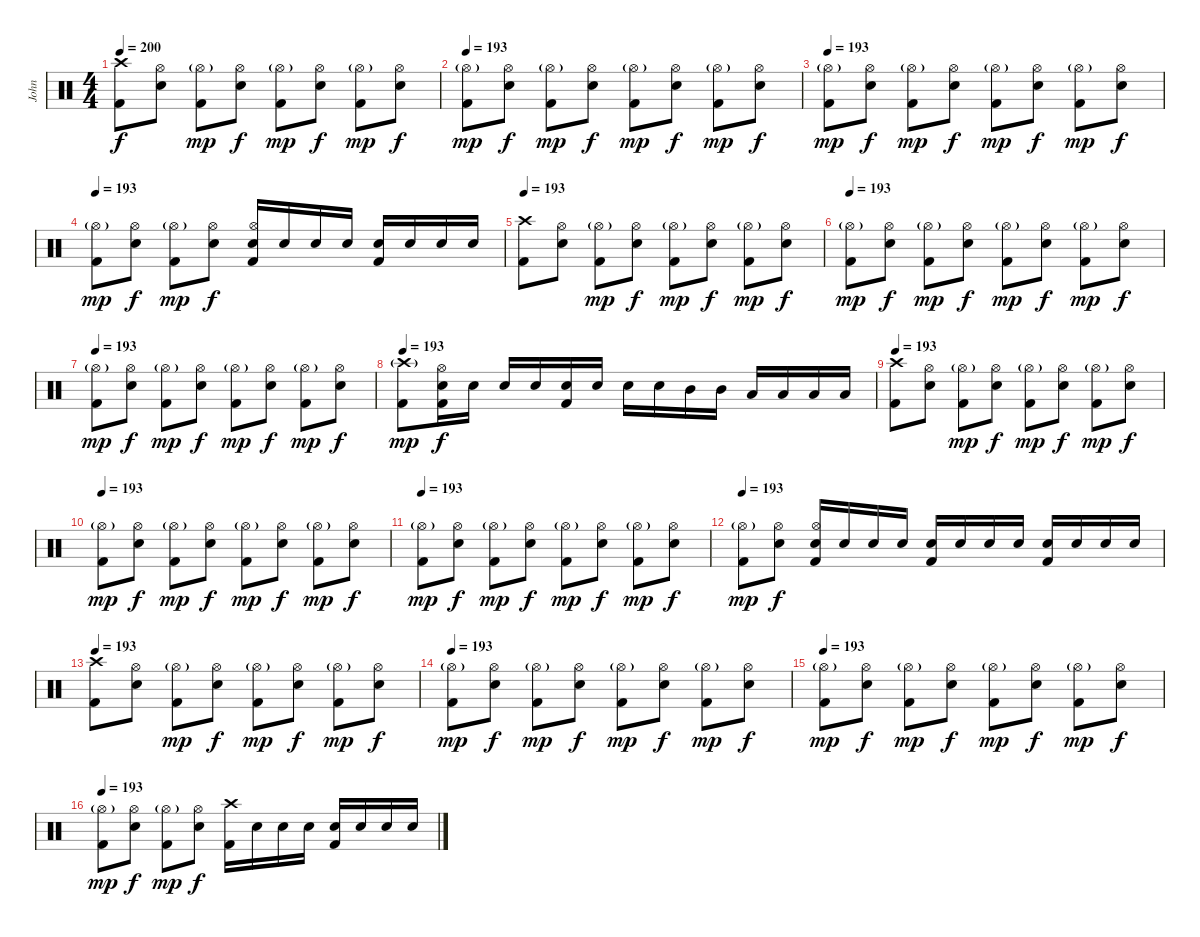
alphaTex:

\track ("John " "John ") {instrument percussion}
\staff {score}
\articulation defaults
\ts (4 4)
\tempo 200
\tempo 193
\tempo 200
\clef neutral
\ks c
("Crash high (hit)" "Kick (hit) 2").8{dy f} ("Hi-Hat (open)" "Snare (hit) 2").8 ("Hi-Hat (open)"{g} "Kick (hit) 2").8{dy mp} ("Hi-Hat (open)" "Snare (hit) 2").8{dy f} ("Hi-Hat (open)"{g} "Kick (hit) 2").8{dy mp} ("Hi-Hat (open)" "Snare (hit) 2").8{dy f} ("Hi-Hat (open)"{g} "Kick (hit) 2").8{dy mp} ("Hi-Hat (open)" "Snare (hit) 2").8{dy f} |
\tempo 193
("Hi-Hat (open)"{g} "Kick (hit) 2").8{dy mp} ("Hi-Hat (open)" "Snare (hit) 2").8{dy f} ("Hi-Hat (open)"{g} "Kick (hit) 2").8{dy mp} ("Hi-Hat (open)" "Snare (hit) 2").8{dy f} ("Hi-Hat (open)"{g} "Kick (hit) 2").8{dy mp} ("Hi-Hat (open)" "Snare (hit) 2").8{dy f} ("Hi-Hat (open)"{g} "Kick (hit) 2").8{dy mp} ("Hi-Hat (open)" "Snare (hit) 2").8{dy f} |
\tempo 193
("Hi-Hat (open)"{g} "Kick (hit) 2").8{dy mp} ("Hi-Hat (open)" "Snare (hit) 2").8{dy f} ("Hi-Hat (open)"{g} "Kick (hit) 2").8{dy mp} ("Hi-Hat (open)" "Snare (hit) 2").8{dy f} ("Hi-Hat (open)"{g} "Kick (hit) 2").8{dy mp} ("Hi-Hat (open)" "Snare (hit) 2").8{dy f} ("Hi-Hat (open)"{g} "Kick (hit) 2").8{dy mp} ("Hi-Hat (open)" "Snare (hit) 2").8{dy f} |
\tempo 193
("Hi-Hat (open)"{g} "Kick (hit) 2").8{dy mp} ("Hi-Hat (open)" "Snare (hit) 2").8{dy f} ("Hi-Hat (open)"{g} "Kick (hit) 2").8{dy mp} ("Hi-Hat (open)" "Snare (hit) 2").8{dy f} ("Kick (hit) 2" "Hi-Hat (open)" "Snare (hit) 2").16 "Snare (hit) 2".16 "Snare (hit) 2".16 "Snare (hit) 2".16 ("Kick (hit) 2" "Snare (hit) 2").16 "Snare (hit) 2".16 "Snare (hit) 2".16 "Snare (hit) 2".16 |
\tempo 193
("Crash high (hit)" "Kick (hit) 2").8 ("Hi-Hat (open)" "Snare (hit) 2").8 ("Hi-Hat (open)"{g} "Kick (hit) 2").8{dy mp} ("Hi-Hat (open)" "Snare (hit) 2").8{dy f} ("Hi-Hat (open)"{g} "Kick (hit) 2").8{dy mp} ("Hi-Hat (open)" "Snare (hit) 2").8{dy f} ("Hi-Hat (open)"{g} "Kick (hit) 2").8{dy mp} ("Hi-Hat (open)" "Snare (hit) 2").8{dy f} |
\tempo 193
("Hi-Hat (open)"{g} "Kick (hit) 2").8{dy mp} ("Hi-Hat (open)" "Snare (hit) 2").8{dy f} ("Hi-Hat (open)"{g} "Kick (hit) 2").8{dy mp} ("Hi-Hat (open)" "Snare (hit) 2").8{dy f} ("Hi-Hat (open)"{g} "Kick (hit) 2").8{dy mp} ("Hi-Hat (open)" "Snare (hit) 2").8{dy f} ("Hi-Hat (open)"{g} "Kick (hit) 2").8{dy mp} ("Hi-Hat (open)" "Snare (hit) 2").8{dy f} |
\tempo 193
("Hi-Hat (open)"{g} "Kick (hit) 2").8{dy mp} ("Hi-Hat (open)" "Snare (hit) 2").8{dy f} ("Hi-Hat (open)"{g} "Kick (hit) 2").8{dy mp} ("Hi-Hat (open)" "Snare (hit) 2").8{dy f} ("Hi-Hat (open)"{g} "Kick (hit) 2").8{dy mp} ("Hi-Hat (open)" "Snare (hit) 2").8{dy f} ("Hi-Hat (open)"{g} "Kick (hit) 2").8{dy mp} ("Hi-Hat (open)" "Snare (hit) 2").8{dy f} |
\tempo 193
("Crash high (hit)"{g} "Kick (hit) 2").8{dy mp} ("Kick (hit) 2" "Hi-Hat (open)" "Snare (hit) 2").16{dy f} "Snare (hit) 2".16 "Snare (hit) 2".16 "Snare (hit) 2".16 ("Kick (hit) 2" "Snare (hit) 2").16 "Snare (hit) 2".16 "Snare (hit) 2".16 "Snare (hit) 2".16 "Mid Tom (hit)".16 "Mid Tom (hit)".16 "Low Tom (hit)".16 "Low Tom (hit)".16 "Low Floor Tom (hit)".16 "Low Floor Tom (hit)".16 |
\tempo 193
("Crash high (hit)" "Kick (hit) 2").8 ("Hi-Hat (open)" "Snare (hit) 2").8 ("Hi-Hat (open)"{g} "Kick (hit) 2").8{dy mp} ("Hi-Hat (open)" "Snare (hit) 2").8{dy f} ("Hi-Hat (open)"{g} "Kick (hit) 2").8{dy mp} ("Hi-Hat (open)" "Snare (hit) 2").8{dy f} ("Hi-Hat (open)"{g} "Kick (hit) 2").8{dy mp} ("Hi-Hat (open)" "Snare (hit) 2").8{dy f} |
\tempo 193
("Hi-Hat (open)"{g} "Kick (hit) 2").8{dy mp} ("Hi-Hat (open)" "Snare (hit) 2").8{dy f} ("Hi-Hat (open)"{g} "Kick (hit) 2").8{dy mp} ("Hi-Hat (open)" "Snare (hit) 2").8{dy f} ("Hi-Hat (open)"{g} "Kick (hit) 2").8{dy mp} ("Hi-Hat (open)" "Snare (hit) 2").8{dy f} ("Hi-Hat (open)"{g} "Kick (hit) 2").8{dy mp} ("Hi-Hat (open)" "Snare (hit) 2").8{dy f} |
\tempo 193
("Hi-Hat (open)"{g} "Kick (hit) 2").8{dy mp} ("Hi-Hat (open)" "Snare (hit) 2").8{dy f} ("Hi-Hat (open)"{g} "Kick (hit) 2").8{dy mp} ("Hi-Hat (open)" "Snare (hit) 2").8{dy f} ("Hi-Hat (open)"{g} "Kick (hit) 2").8{dy mp} ("Hi-Hat (open)" "Snare (hit) 2").8{dy f} ("Hi-Hat (open)"{g} "Kick (hit) 2").8{dy mp} ("Hi-Hat (open)" "Snare (hit) 2").8{dy f} |
\tempo 193
("Hi-Hat (open)"{g} "Kick (hit) 2").8{dy mp} ("Hi-Hat (open)" "Snare (hit) 2").8{dy f} ("Kick (hit) 2" "Hi-Hat (open)" "Snare (hit) 2").16 "Snare (hit) 2".16 "Snare (hit) 2".16 "Snare (hit) 2".16 ("Kick (hit) 2" "Snare (hit) 2").16 "Snare (hit) 2".16 "Snare (hit) 2".16 "Snare (hit) 2".16 ("Kick (hit) 2" "Snare (hit) 2").16 "Snare (hit) 2".16 "Snare (hit) 2".16 "Snare (hit) 2".16 |
\tempo 193
("Crash high (hit)" "Kick (hit) 2").8 ("Hi-Hat (open)" "Snare (hit) 2").8 ("Hi-Hat (open)"{g} "Kick (hit) 2").8{dy mp} ("Hi-Hat (open)" "Snare (hit) 2").8{dy f} ("Hi-Hat (open)"{g} "Kick (hit) 2").8{dy mp} ("Hi-Hat (open)" "Snare (hit) 2").8{dy f} ("Hi-Hat (open)"{g} "Kick (hit) 2").8{dy mp} ("Hi-Hat (open)" "Snare (hit) 2").8{dy f} |
\tempo 193
("Hi-Hat (open)"{g} "Kick (hit) 2").8{dy mp} ("Hi-Hat (open)" "Snare (hit) 2").8{dy f} ("Hi-Hat (open)"{g} "Kick (hit) 2").8{dy mp} ("Hi-Hat (open)" "Snare (hit) 2").8{dy f} ("Hi-Hat (open)"{g} "Kick (hit) 2").8{dy mp} ("Hi-Hat (open)" "Snare (hit) 2").8{dy f} ("Hi-Hat (open)"{g} "Kick (hit) 2").8{dy mp} ("Hi-Hat (open)" "Snare (hit) 2").8{dy f} |
\tempo 193
("Hi-Hat (open)"{g} "Kick (hit) 2").8{dy mp} ("Hi-Hat (open)" "Snare (hit) 2").8{dy f} ("Hi-Hat (open)"{g} "Kick (hit) 2").8{dy mp} ("Hi-Hat (open)" "Snare (hit) 2").8{dy f} ("Hi-Hat (open)"{g} "Kick (hit) 2").8{dy mp} ("Hi-Hat (open)" "Snare (hit) 2").8{dy f} ("Hi-Hat (open)"{g} "Kick (hit) 2").8{dy mp} ("Hi-Hat (open)" "Snare (hit) 2").8{dy f} |
\tempo 193
("Hi-Hat (open)"{g} "Kick (hit) 2").8{dy mp} ("Hi-Hat (open)" "Snare (hit) 2").8{dy f} ("Hi-Hat (open)"{g} "Kick (hit) 2").8{dy mp} ("Hi-Hat (open)" "Snare (hit) 2").8{dy f} ("Kick (hit) 2" "Crash high (hit)").16 "Snare (hit) 2".16 "Snare (hit) 2".16 "Snare (hit) 2".16 ("Kick (hit) 2" "Snare (hit) 2").16 "Snare (hit) 2".16 "Snare (hit) 2".16 "Snare (hit) 2".16
